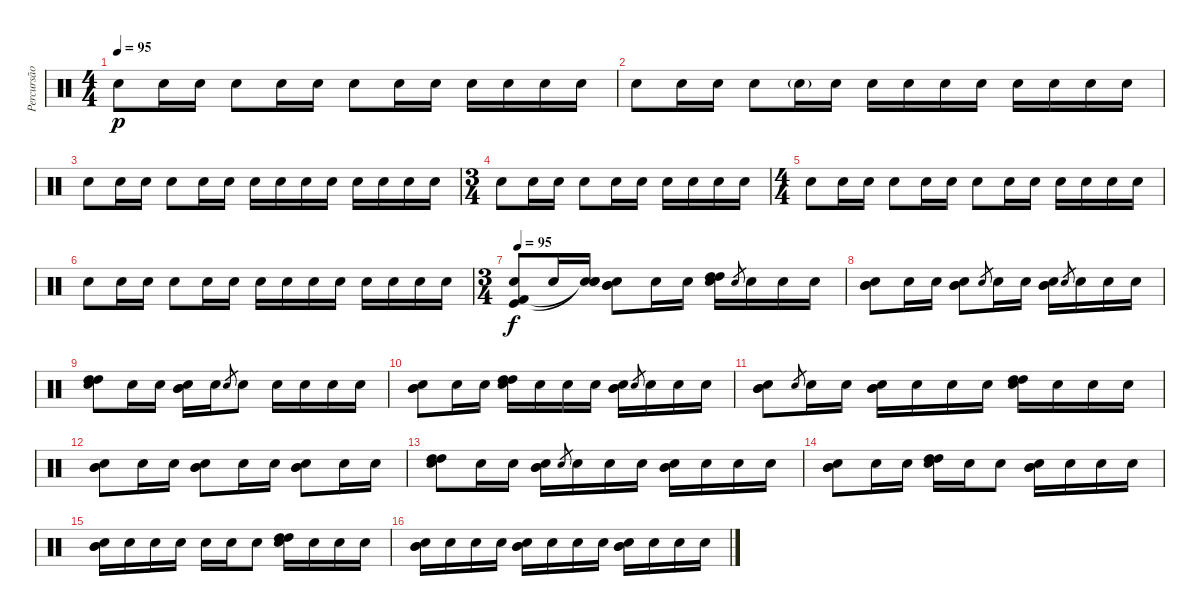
\track ("Percursão" "Percursão") {instrument percussion}
\staff {score}
\articulation defaults
\ts (4 4)
\tempo 95
\clef neutral
\ks c "Electric Snare (hit)".8{dy p} "Electric Snare (hit)".16 "Electric Snare (hit)".16 "Electric Snare (hit)".8 "Electric Snare (hit)".16 "Electric Snare (hit)".16 "Electric Snare (hit)".8 "Electric Snare (hit)".16 "Electric Snare (hit)".16 "Electric Snare (hit)".16 "Electric Snare (hit)".16 "Electric Snare (hit)".16 "Electric Snare (hit)".16
|
"Electric Snare (hit)".8 "Electric Snare (hit)".16 "Electric Snare (hit)".16 "Electric Snare (hit)".8 "Electric Snare (hit)"{g}.16 "Electric Snare (hit)".16 "Electric Snare (hit)".16 "Electric Snare (hit)".16 "Electric Snare (hit)".16 "Electric Snare (hit)".16 "Electric Snare (hit)".16 "Electric Snare (hit)".16 "Electric Snare (hit)".16 "Electric Snare (hit)".16 |
"Electric Snare (hit)".8 "Electric Snare (hit)".16 "Electric Snare (hit)".16 "Electric Snare (hit)".8 "Electric Snare (hit)".16 "Electric Snare (hit)".16 "Electric Snare (hit)".16 "Electric Snare (hit)".16 "Electric Snare (hit)".16 "Electric Snare (hit)".16 "Electric Snare (hit)".16 "Electric Snare (hit)".16 "Electric Snare (hit)".16 "Electric Snare (hit)".16 |
\ts (3 4)
"Electric Snare (hit)".8 "Electric Snare (hit)".16 "Electric Snare (hit)".16 "Electric Snare (hit)".8 "Electric Snare (hit)".16 "Electric Snare (hit)".16 "Electric Snare (hit)".16 "Electric Snare (hit)".16 "Electric Snare (hit)".16 "Electric Snare (hit)".16 |
\ts (4 4)
"Electric Snare (hit)".8 "Electric Snare (hit)".16 "Electric Snare (hit)".16 "Electric Snare (hit)".8 "Electric Snare (hit)".16 "Electric Snare (hit)".16 "Electric Snare (hit)".8 "Electric Snare (hit)".16 "Electric Snare (hit)".16 "Electric Snare (hit)".16 "Electric Snare (hit)".16 "Electric Snare (hit)".16 "Electric Snare (hit)".16 |
"Electric Snare (hit)".8 "Electric Snare (hit)".16 "Electric Snare (hit)".16 "Electric Snare (hit)".8 "Electric Snare (hit)".16 "Electric Snare (hit)".16 "Electric Snare (hit)".16 "Electric Snare (hit)".16 "Electric Snare (hit)".16 "Electric Snare (hit)".16 "Electric Snare (hit)".16 "Electric Snare (hit)".16 "Electric Snare (hit)".16 "Electric Snare (hit)".16 |
\ts (3 4)
\tempo 95
("Electric Snare (hit)" "Kick (hit)" "Kick (hit) 2").8{dy f volume 6} "Electric Snare (hit)".16 ("Electric Snare (hit)" "Snare (hit)"{t} "Snare (hit)"{t}).16 ("Electric Snare (hit)" "Mid Tom (hit)" "Mid Tom (hit)").8 "Electric Snare (hit)".16 "Electric Snare (hit)".16 ("Electric Snare (hit)" "High Tom (hit)" "High Tom (hit)").16 "Electric Snare (hit)".8{gr} "Electric Snare (hit)".16 "Electric Snare (hit)".16 "Electric Snare (hit)".16 |
("Electric Snare (hit)" "Mid Tom (hit)" "Mid Tom (hit)").8 "Electric Snare (hit)".16 "Electric Snare (hit)".16 ("Electric Snare (hit)" "Mid Tom (hit)" "Mid Tom (hit)").8 "Electric Snare (hit)".8{gr} "Electric Snare (hit)".16 "Electric Snare (hit)".16 ("Electric Snare (hit)" "Mid Tom (hit)" "Mid Tom (hit)").16 "Electric Snare (hit)".8{gr} "Electric Snare (hit)".16 "Electric Snare (hit)".16 "Electric Snare (hit)".16 |
("Electric Snare (hit)" "High Tom (hit)" "High Tom (hit)").8 "Electric Snare (hit)".16 "Electric Snare (hit)".16 ("Electric Snare (hit)" "Mid Tom (hit)" "Mid Tom (hit)").16 "Electric Snare (hit)".16 "Electric Snare (hit)".8{gr} "Electric Snare (hit)".8 "Electric Snare (hit)".16 "Electric Snare (hit)".16 "Electric Snare (hit)".16 "Electric Snare (hit)".16 |
("Electric Snare (hit)" "Mid Tom (hit)" "Mid Tom (hit)").8 "Electric Snare (hit)".16 "Electric Snare (hit)".16 ("Electric Snare (hit)" "High Tom (hit)" "High Tom (hit)").16 "Electric Snare (hit)".16 "Electric Snare (hit)".16 "Electric Snare (hit)".16 ("Electric Snare (hit)" "Mid Tom (hit)" "Mid Tom (hit)").16 "Electric Snare (hit)".8{gr} "Electric Snare (hit)".16 "Electric Snare (hit)".16 "Electric Snare (hit)".16 |
("Electric Snare (hit)" "Mid Tom (hit)" "Mid Tom (hit)").8 "Electric Snare (hit)".8{gr} "Electric Snare (hit)".16 "Electric Snare (hit)".16 ("Electric Snare (hit)" "Mid Tom (hit)" "Mid Tom (hit)").16 "Electric Snare (hit)".16 "Electric Snare (hit)".16 "Electric Snare (hit)".16 ("Electric Snare (hit)" "High Tom (hit)" "High Tom (hit)").16 "Electric Snare (hit)".16 "Electric Snare (hit)".16 "Electric Snare (hit)".16 |
("Electric Snare (hit)" "Mid Tom (hit)" "Mid Tom (hit)").8 "Electric Snare (hit)".16 "Electric Snare (hit)".16 ("Electric Snare (hit)" "Mid Tom (hit)" "Mid Tom (hit)").8 "Electric Snare (hit)".16 "Electric Snare (hit)".16 ("Electric Snare (hit)" "Mid Tom (hit)" "Mid Tom (hit)").8 "Electric Snare (hit)".16 "Electric Snare (hit)".16 |
("Electric Snare (hit)" "High Tom (hit)" "High Tom (hit)").8 "Electric Snare (hit)".16 "Electric Snare (hit)".16 ("Electric Snare (hit)" "Mid Tom (hit)" "Mid Tom (hit)").16 "Electric Snare (hit)".8{gr} "Electric Snare (hit)".16 "Electric Snare (hit)".16 "Electric Snare (hit)".16 ("Electric Snare (hit)" "Mid Tom (hit)" "Mid Tom (hit)").16 "Electric Snare (hit)".16 "Electric Snare (hit)".16 "Electric Snare (hit)".16 |
("Electric Snare (hit)" "Mid Tom (hit)" "Mid Tom (hit)").8 "Electric Snare (hit)".16 "Electric Snare (hit)".16 ("Electric Snare (hit)" "High Tom (hit)" "High Tom (hit)").16 "Electric Snare (hit)".16 "Electric Snare (hit)".8 ("Electric Snare (hit)" "Mid Tom (hit)" "Mid Tom (hit)").16 "Electric Snare (hit)".16 "Electric Snare (hit)".16 "Electric Snare (hit)".16 |
("Electric Snare (hit)" "Mid Tom (hit)" "Mid Tom (hit)").16 "Electric Snare (hit)".16 "Electric Snare (hit)".16 "Electric Snare (hit)".16 "Electric Snare (hit)".16 "Electric Snare (hit)".16 "Electric Snare (hit)".8 ("Electric Snare (hit)" "High Tom (hit)" "High Tom (hit)").16 "Electric Snare (hit)".16 "Electric Snare (hit)".16 "Electric Snare (hit)".16 |
("Electric Snare (hit)" "Mid Tom (hit)" "Mid Tom (hit)").16 "Electric Snare (hit)".16 "Electric Snare (hit)".16 "Electric Snare (hit)".16 ("Electric Snare (hit)" "Mid Tom (hit)" "Mid Tom (hit)").16 "Electric Snare (hit)".16 "Electric Snare (hit)".16 "Electric Snare (hit)".16 ("Electric Snare (hit)" "Mid Tom (hit)" "Mid Tom (hit)").16 "Electric Snare (hit)".16 "Electric Snare (hit)".16 "Electric Snare (hit)".16
